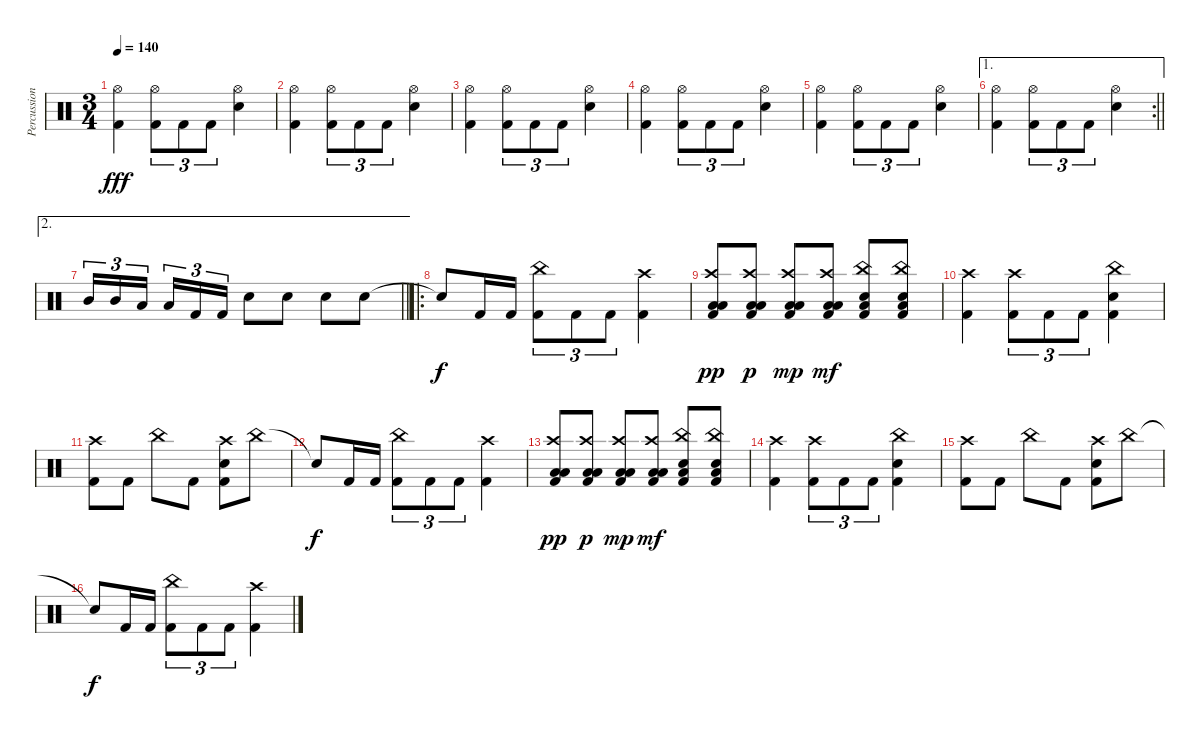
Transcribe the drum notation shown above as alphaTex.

\track ("Percussions" "Percussion") {instrument percussion}
\staff {score}
\articulation defaults
\ts (3 4)
\tempo 140
\clef neutral
\ks c
("Hi-Hat (open)" "Kick (hit) 2").4{dy fff} ("Hi-Hat (open)" "Kick (hit) 2").8{tu (3 2)} "Kick (hit) 2".8{tu (3 2)} "Kick (hit) 2".8{tu (3 2)} ("Hi-Hat (open)" "Electric Snare (hit)").4 |
("Hi-Hat (open)" "Kick (hit) 2").4 ("Hi-Hat (open)" "Kick (hit) 2").8{tu (3 2)} "Kick (hit) 2".8{tu (3 2)} "Kick (hit) 2".8{tu (3 2)} ("Hi-Hat (open)" "Electric Snare (hit)").4 |
("Hi-Hat (open)" "Kick (hit) 2").4 ("Hi-Hat (open)" "Kick (hit) 2").8{tu (3 2)} "Kick (hit) 2".8{tu (3 2)} "Kick (hit) 2".8{tu (3 2)} ("Hi-Hat (open)" "Electric Snare (hit)").4 |
("Hi-Hat (open)" "Kick (hit) 2").4 ("Hi-Hat (open)" "Kick (hit) 2").8{tu (3 2)} "Kick (hit) 2".8{tu (3 2)} "Kick (hit) 2".8{tu (3 2)} ("Hi-Hat (open)" "Electric Snare (hit)").4 |
("Hi-Hat (open)" "Kick (hit) 2").4 ("Hi-Hat (open)" "Kick (hit) 2").8{tu (3 2)} "Kick (hit) 2".8{tu (3 2)} "Kick (hit) 2".8{tu (3 2)} ("Hi-Hat (open)" "Electric Snare (hit)").4 |
\ae 1
\rc 2
\barLineRight lightlight
("Hi-Hat (open)" "Kick (hit) 2").4 ("Hi-Hat (open)" "Kick (hit) 2").8{tu (3 2)} "Kick (hit) 2".8{tu (3 2)} "Kick (hit) 2".8{tu (3 2)} ("Hi-Hat (open)" "Electric Snare (hit)").4 |
\ae 2
\barLineRight lightlight "Mid Tom (hit)".16{tu (3 2)} "Mid Tom (hit)".16{tu (3 2)} "Low Tom (hit)".16{tu (3 2) beam splitsecondary} "Low Tom (hit)".16{tu (3 2)} "Kick (hit) 2".16{tu (3 2)} "Kick (hit) 2".16{tu (3 2)} "Electric Snare (hit)".8 "Electric Snare (hit)".8 "Electric Snare (hit)".8 "Electric Snare (hit)".8
|
\ro "Snare (hit)"{t}.8{dy f} "Kick (hit) 2".16 "Kick (hit) 2".16
("China (hit)" "Kick (hit) 2").8{tu (3 2)} "Kick (hit) 2".8{tu (3 2)} "Kick (hit) 2".8{tu (3 2)} ("Crash high (hit)" "Kick (hit) 2").4 |
("Crash high (hit)" "Low Tom (hit)" "Low Floor Tom (hit)" "Kick (hit) 2").8{dy pp} ("Crash high (hit)" "Low Tom (hit)" "Low Floor Tom (hit)" "Kick (hit) 2").8{dy p} ("Crash high (hit)" "Low Tom (hit)" "Low Floor Tom (hit)" "Kick (hit) 2").8{dy mp} ("Crash high (hit)" "Low Tom (hit)" "Low Floor Tom (hit)" "Kick (hit) 2").8{dy mf} ("China (hit)" "Electric Snare (hit)" "Low Floor Tom (hit)" "Kick (hit) 2").8 ("China (hit)" "Electric Snare (hit)" "Low Floor Tom (hit)" "Kick (hit) 2").8 |
("Crash high (hit)" "Kick (hit) 2").4 ("Crash high (hit)" "Kick (hit) 2").8{tu (3 2)} "Kick (hit) 2".8{tu (3 2)} "Kick (hit) 2".8{tu (3 2)} ("China (hit)" "Electric Snare (hit)" "Kick (hit) 2").4 |
("Crash high (hit)" "Kick (hit) 2").8 "Kick (hit) 2".8 "China (hit)".8 "Kick (hit) 2".8 ("Crash high (hit)" "Electric Snare (hit)" "Kick (hit) 2").8 "China (hit)".8 |
"Snare (hit)"{t}.8{dy f} "Kick (hit) 2".16 "Kick (hit) 2".16 ("China (hit)" "Kick (hit) 2").8{tu (3 2)} "Kick (hit) 2".8{tu (3 2)} "Kick (hit) 2".8{tu (3 2)} ("Crash high (hit)" "Kick (hit) 2").4 |
("Crash high (hit)" "Low Tom (hit)" "Low Floor Tom (hit)" "Kick (hit) 2").8{dy pp} ("Crash high (hit)" "Low Tom (hit)" "Low Floor Tom (hit)" "Kick (hit) 2").8{dy p} ("Crash high (hit)" "Low Tom (hit)" "Low Floor Tom (hit)" "Kick (hit) 2").8{dy mp} ("Crash high (hit)" "Low Tom (hit)" "Low Floor Tom (hit)" "Kick (hit) 2").8{dy mf} ("China (hit)" "Electric Snare (hit)" "Low Floor Tom (hit)" "Kick (hit) 2").8 ("China (hit)" "Electric Snare (hit)" "Low Floor Tom (hit)" "Kick (hit) 2").8 |
("Crash high (hit)" "Kick (hit) 2").4 ("Crash high (hit)" "Kick (hit) 2").8{tu (3 2)} "Kick (hit) 2".8{tu (3 2)} "Kick (hit) 2".8{tu (3 2)} ("China (hit)" "Electric Snare (hit)" "Kick (hit) 2").4 |
("Crash high (hit)" "Kick (hit) 2").8 "Kick (hit) 2".8 "China (hit)".8 "Kick (hit) 2".8 ("Crash high (hit)" "Electric Snare (hit)" "Kick (hit) 2").8 "China (hit)".8 |
"Snare (hit)"{t}.8{dy f} "Kick (hit) 2".16 "Kick (hit) 2".16 ("China (hit)" "Kick (hit) 2").8{tu (3 2)} "Kick (hit) 2".8{tu (3 2)} "Kick (hit) 2".8{tu (3 2)} ("Crash high (hit)" "Kick (hit) 2").4
